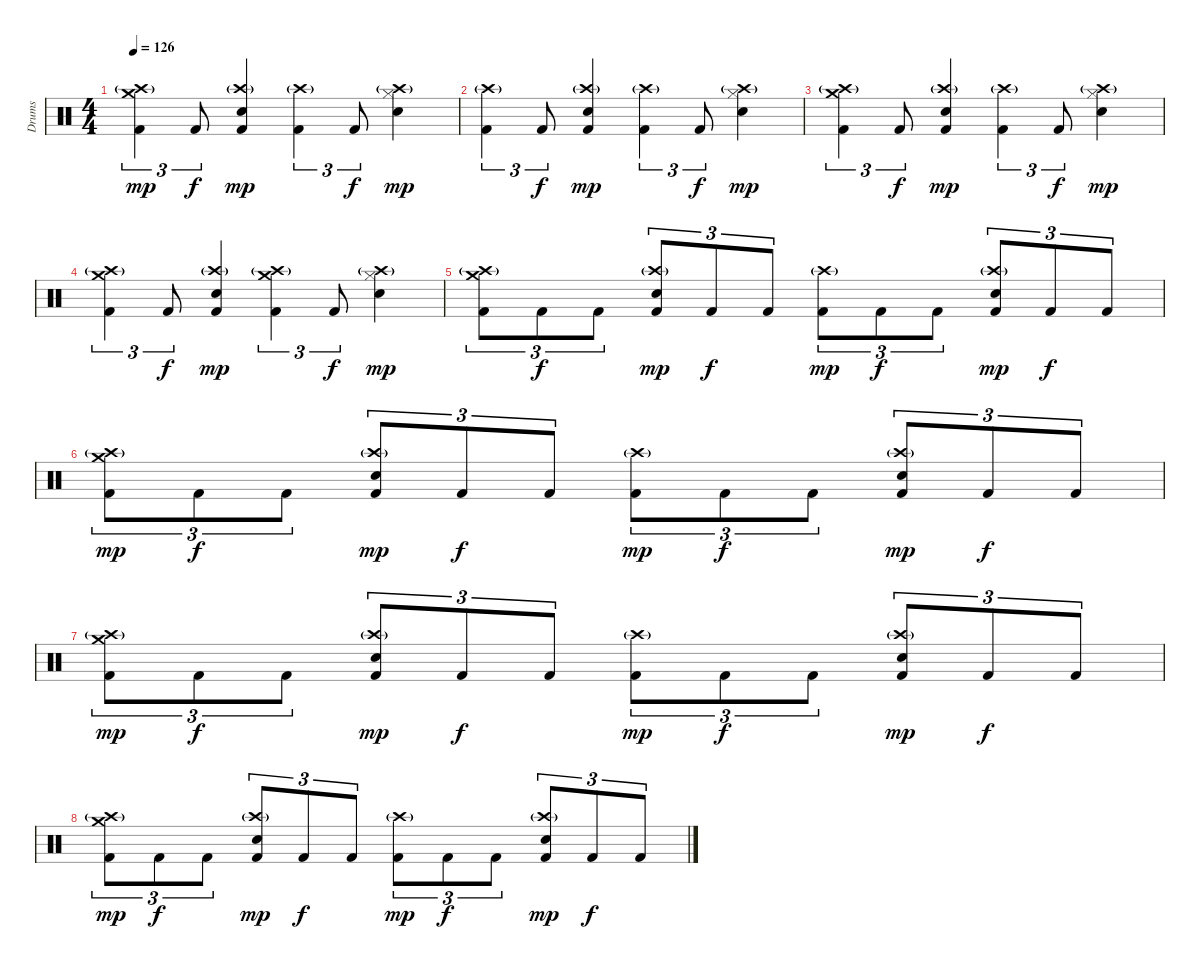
\track ("Drums" "Drums") {instrument percussion}
\staff {score}
\articulation defaults
\ts (4 4)
\tempo 126
\clef neutral
\ks c
("Kick (hit) 2" "Crash medium (hit)" "Crash high (hit)"{g}).4{tu (3 2) dy mp volume 16} "Kick (hit) 2".8{tu (3 2) dy f} ("Kick (hit) 2" "Snare (hit) 2" "Crash high (hit)"{g}).4{dy mp} ("Kick (hit) 2" "Crash high (hit)"{g}).4{tu (3 2)} "Kick (hit) 2".8{tu (3 2) dy f} ("Hi-Hat (closed)" "Snare (hit) 2" "Crash high (hit)"{g}).4{dy mp} |
("Kick (hit) 2" "Crash high (hit)"{g}).4{tu (3 2)} "Kick (hit) 2".8{tu (3 2) dy f} ("Kick (hit) 2" "Snare (hit) 2" "Crash high (hit)"{g}).4{dy mp} ("Kick (hit) 2" "Crash high (hit)"{g}).4{tu (3 2)} "Kick (hit) 2".8{tu (3 2) dy f} ("Hi-Hat (closed)" "Snare (hit) 2" "Crash high (hit)"{g}).4{dy mp} |
("Kick (hit) 2" "Crash medium (hit)" "Crash high (hit)"{g}).4{tu (3 2)} "Kick (hit) 2".8{tu (3 2) dy f} ("Kick (hit) 2" "Snare (hit) 2" "Crash high (hit)"{g}).4{dy mp} ("Kick (hit) 2" "Crash high (hit)"{g}).4{tu (3 2)} "Kick (hit) 2".8{tu (3 2) dy f} ("Hi-Hat (closed)" "Snare (hit) 2" "Crash high (hit)"{g}).4{dy mp} |
("Kick (hit) 2" "Crash medium (hit)" "Crash high (hit)"{g}).4{tu (3 2)} "Kick (hit) 2".8{tu (3 2) dy f} ("Kick (hit) 2" "Snare (hit) 2" "Crash high (hit)"{g}).4{dy mp} ("Kick (hit) 2" "Crash medium (hit)" "Crash high (hit)"{g}).4{tu (3 2)} "Kick (hit) 2".8{tu (3 2) dy f} ("Hi-Hat (closed)" "Snare (hit) 2" "Crash high (hit)"{g}).4{dy mp} |
("Kick (hit) 2" "Crash medium (hit)" "Crash high (hit)"{g}).8{tu (3 2) volume 16} "Kick (hit) 2".8{tu (3 2) dy f} "Kick (hit) 2".8{tu (3 2)} ("Kick (hit) 2" "Snare (hit) 2" "Crash high (hit)"{g}).8{tu (3 2) dy mp} "Kick (hit) 2".8{tu (3 2) dy f} "Kick (hit) 2".8{tu (3 2)} ("Kick (hit) 2" "Crash high (hit)"{g}).8{tu (3 2) dy mp} "Kick (hit) 2".8{tu (3 2) dy f} "Kick (hit) 2".8{tu (3 2)} ("Kick (hit) 2" "Snare (hit) 2" "Crash high (hit)"{g}).8{tu (3 2) dy mp} "Kick (hit) 2".8{tu (3 2) dy f} "Kick (hit) 2".8{tu (3 2)} |
("Kick (hit) 2" "Crash medium (hit)" "Crash high (hit)"{g}).8{tu (3 2) dy mp} "Kick (hit) 2".8{tu (3 2) dy f} "Kick (hit) 2".8{tu (3 2)} ("Kick (hit) 2" "Snare (hit) 2" "Crash high (hit)"{g}).8{tu (3 2) dy mp} "Kick (hit) 2".8{tu (3 2) dy f} "Kick (hit) 2".8{tu (3 2)} ("Kick (hit) 2" "Crash high (hit)"{g}).8{tu (3 2) dy mp} "Kick (hit) 2".8{tu (3 2) dy f} "Kick (hit) 2".8{tu (3 2)} ("Kick (hit) 2" "Snare (hit) 2" "Crash high (hit)"{g}).8{tu (3 2) dy mp} "Kick (hit) 2".8{tu (3 2) dy f} "Kick (hit) 2".8{tu (3 2)} |
("Kick (hit) 2" "Crash medium (hit)" "Crash high (hit)"{g}).8{tu (3 2) dy mp} "Kick (hit) 2".8{tu (3 2) dy f} "Kick (hit) 2".8{tu (3 2)} ("Kick (hit) 2" "Snare (hit) 2" "Crash high (hit)"{g}).8{tu (3 2) dy mp} "Kick (hit) 2".8{tu (3 2) dy f} "Kick (hit) 2".8{tu (3 2)} ("Kick (hit) 2" "Crash high (hit)"{g}).8{tu (3 2) dy mp} "Kick (hit) 2".8{tu (3 2) dy f} "Kick (hit) 2".8{tu (3 2)} ("Kick (hit) 2" "Snare (hit) 2" "Crash high (hit)"{g}).8{tu (3 2) dy mp} "Kick (hit) 2".8{tu (3 2) dy f} "Kick (hit) 2".8{tu (3 2)} |
("Kick (hit) 2" "Crash medium (hit)" "Crash high (hit)"{g}).8{tu (3 2) dy mp} "Kick (hit) 2".8{tu (3 2) dy f} "Kick (hit) 2".8{tu (3 2)} ("Kick (hit) 2" "Snare (hit) 2" "Crash high (hit)"{g}).8{tu (3 2) dy mp} "Kick (hit) 2".8{tu (3 2) dy f} "Kick (hit) 2".8{tu (3 2)} ("Kick (hit) 2" "Crash high (hit)"{g}).8{tu (3 2) dy mp} "Kick (hit) 2".8{tu (3 2) dy f} "Kick (hit) 2".8{tu (3 2)} ("Kick (hit) 2" "Snare (hit) 2" "Crash high (hit)"{g}).8{tu (3 2) dy mp} "Kick (hit) 2".8{tu (3 2) dy f} "Kick (hit) 2".8{tu (3 2)}
